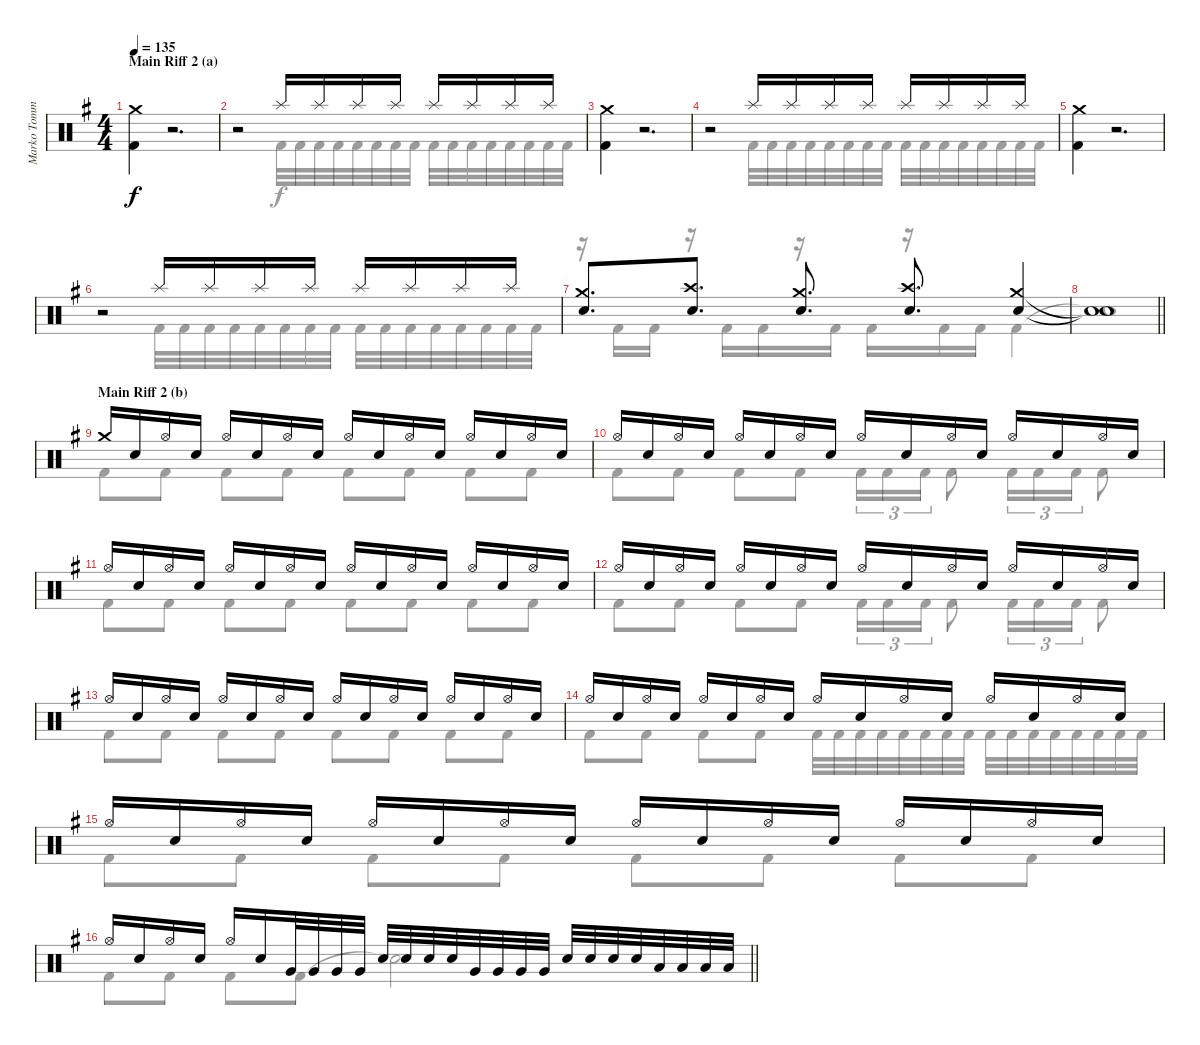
\track ("Marko Tommila (drums)" "Marko Tomm") {instrument percussion}
\staff {score}
\articulation defaults
\voice
\ts (4 4)
\section ("" "Main Riff 2 (a)")
\tempo 135
\clef neutral
\ks eminor
("Crash medium (hit)" "Kick (hit) 2").4{dy f} r.2{d} |
r.2 "Splash (hit)".16 "Splash (hit)".16 "Splash (hit)".16 "Splash (hit)".16 "Splash (hit)".16 "Splash (hit)".16 "Splash (hit)".16 "Splash (hit)".16 |
("Crash medium (hit)" "Kick (hit) 2").4 r.2{d} |
r.2 "Splash (hit)".16 "Splash (hit)".16 "Splash (hit)".16 "Splash (hit)".16 "Splash (hit)".16 "Splash (hit)".16 "Splash (hit)".16 "Splash (hit)".16 |
("Crash medium (hit)" "Kick (hit) 2").4 r.2{d} |
r.2 "Splash (hit)".16 "Splash (hit)".16 "Splash (hit)".16 "Splash (hit)".16 "Splash (hit)".16 "Splash (hit)".16 "Splash (hit)".16 "Splash (hit)".16 |
("Crash medium (hit)" "Electric Snare (hit)").8{d} ("Crash high (hit)" "Electric Snare (hit)").8{d} ("Crash medium (hit)" "Electric Snare (hit)").8{d} ("Crash high (hit)" "Electric Snare (hit)").8{d} ("Crash medium (hit)" "Electric Snare (hit)").4 |
\barLineRight lightlight
("Snare (hit)"{t} "Snare (hit)"{t}).1 |
\section ("" "Main Riff 2 (b)")
"Crash medium (hit)".16 "Electric Snare (hit)".16 "Hi-Hat (open)".16 "Electric Snare (hit)".16 "Hi-Hat (open)".16 "Electric Snare (hit)".16 "Hi-Hat (open)".16 "Electric Snare (hit)".16 "Hi-Hat (open)".16 "Electric Snare (hit)".16 "Hi-Hat (open)".16 "Electric Snare (hit)".16 "Hi-Hat (open)".16 "Electric Snare (hit)".16 "Hi-Hat (open)".16 "Electric Snare (hit)".16 |
"Hi-Hat (open)".16 "Electric Snare (hit)".16 "Hi-Hat (open)".16 "Electric Snare (hit)".16 "Hi-Hat (open)".16 "Electric Snare (hit)".16 "Hi-Hat (open)".16 "Electric Snare (hit)".16 "Hi-Hat (open)".16 "Electric Snare (hit)".16 "Hi-Hat (open)".16 "Electric Snare (hit)".16 "Hi-Hat (open)".16 "Electric Snare (hit)".16 "Hi-Hat (open)".16 "Electric Snare (hit)".16 |
"Hi-Hat (open)".16 "Electric Snare (hit)".16 "Hi-Hat (open)".16 "Electric Snare (hit)".16 "Hi-Hat (open)".16 "Electric Snare (hit)".16 "Hi-Hat (open)".16 "Electric Snare (hit)".16 "Hi-Hat (open)".16 "Electric Snare (hit)".16 "Hi-Hat (open)".16 "Electric Snare (hit)".16 "Hi-Hat (open)".16 "Electric Snare (hit)".16 "Hi-Hat (open)".16 "Electric Snare (hit)".16 |
"Hi-Hat (open)".16 "Electric Snare (hit)".16 "Hi-Hat (open)".16 "Electric Snare (hit)".16 "Hi-Hat (open)".16 "Electric Snare (hit)".16 "Hi-Hat (open)".16 "Electric Snare (hit)".16 "Hi-Hat (open)".16 "Electric Snare (hit)".16 "Hi-Hat (open)".16 "Electric Snare (hit)".16 "Hi-Hat (open)".16 "Electric Snare (hit)".16 "Hi-Hat (open)".16 "Electric Snare (hit)".16 |
"Hi-Hat (open)".16 "Electric Snare (hit)".16 "Hi-Hat (open)".16 "Electric Snare (hit)".16 "Hi-Hat (open)".16 "Electric Snare (hit)".16 "Hi-Hat (open)".16 "Electric Snare (hit)".16 "Hi-Hat (open)".16 "Electric Snare (hit)".16 "Hi-Hat (open)".16 "Electric Snare (hit)".16 "Hi-Hat (open)".16 "Electric Snare (hit)".16 "Hi-Hat (open)".16 "Electric Snare (hit)".16 |
"Hi-Hat (open)".16 "Electric Snare (hit)".16 "Hi-Hat (open)".16 "Electric Snare (hit)".16 "Hi-Hat (open)".16 "Electric Snare (hit)".16 "Hi-Hat (open)".16 "Electric Snare (hit)".16 "Hi-Hat (open)".16 "Electric Snare (hit)".16 "Hi-Hat (open)".16 "Electric Snare (hit)".16 "Hi-Hat (open)".16 "Electric Snare (hit)".16 "Hi-Hat (open)".16 "Electric Snare (hit)".16 |
"Hi-Hat (open)".16 "Electric Snare (hit)".16 "Hi-Hat (open)".16 "Electric Snare (hit)".16 "Hi-Hat (open)".16 "Electric Snare (hit)".16 "Hi-Hat (open)".16 "Electric Snare (hit)".16 "Hi-Hat (open)".16 "Electric Snare (hit)".16 "Hi-Hat (open)".16 "Electric Snare (hit)".16 "Hi-Hat (open)".16 "Electric Snare (hit)".16 "Hi-Hat (open)".16 "Electric Snare (hit)".16 |
\barLineRight lightlight "Hi-Hat (open)".16 "Electric Snare (hit)".16 "Hi-Hat (open)".16 "Electric Snare (hit)".16 "Hi-Hat (open)".16 "Electric Snare (hit)".16 "Very Low Tom (hit)".32 "Very Low Tom (hit)".32 "Very Low Tom (hit)".32 "Very Low Tom (hit)".32 "Electric Snare (hit)".32 "Electric Snare (hit)".32 "Electric Snare (hit)".32 "Electric Snare (hit)".32 "Very Low Tom (hit)".32 "Very Low Tom (hit)".32 "Very Low Tom (hit)".32 "Very Low Tom (hit)".32 "Electric Snare (hit)".32 "Electric Snare (hit)".32 "Electric Snare (hit)".32 "Electric Snare (hit)".32 "Low Tom (hit)".32 "Low Tom (hit)".32 "Low Tom (hit)".32 "Low Tom (hit)".32
\voice
\clef neutral
\ottava regular
\simile none
\ks eminor
|
r.2 "Kick (hit) 2".32 "Kick (hit) 2".32 "Kick (hit) 2".32 "Kick (hit) 2".32 "Kick (hit) 2".32 "Kick (hit) 2".32 "Kick (hit) 2".32 "Kick (hit) 2".32 "Kick (hit) 2".32 "Kick (hit) 2".32 "Kick (hit) 2".32 "Kick (hit) 2".32 "Kick (hit) 2".32 "Kick (hit) 2".32 "Kick (hit) 2".32 "Kick (hit) 2".32 |
|
r.2 "Kick (hit) 2".32 "Kick (hit) 2".32 "Kick (hit) 2".32 "Kick (hit) 2".32 "Kick (hit) 2".32 "Kick (hit) 2".32 "Kick (hit) 2".32 "Kick (hit) 2".32 "Kick (hit) 2".32 "Kick (hit) 2".32 "Kick (hit) 2".32 "Kick (hit) 2".32 "Kick (hit) 2".32 "Kick (hit) 2".32 "Kick (hit) 2".32 "Kick (hit) 2".32 |
|
r.2 "Kick (hit) 2".32 "Kick (hit) 2".32 "Kick (hit) 2".32 "Kick (hit) 2".32 "Kick (hit) 2".32 "Kick (hit) 2".32 "Kick (hit) 2".32 "Kick (hit) 2".32 "Kick (hit) 2".32 "Kick (hit) 2".32 "Kick (hit) 2".32 "Kick (hit) 2".32 "Kick (hit) 2".32 "Kick (hit) 2".32 "Kick (hit) 2".32 "Kick (hit) 2".32 |
r.16 "Kick (hit) 2".16 "Kick (hit) 2".16 r.16 "Kick (hit) 2".16 "Kick (hit) 2".16 r.16 "Kick (hit) 2".16 "Kick (hit) 2".16 r.16 "Kick (hit) 2".16 "Kick (hit) 2".16 "Kick (hit) 2".4 |
\barLineRight lightlight "Snare (hit)"{t}.1
|
"Kick (hit) 2".8 "Kick (hit) 2".8 "Kick (hit) 2".8 "Kick (hit) 2".8 "Kick (hit) 2".8 "Kick (hit) 2".8 "Kick (hit) 2".8 "Kick (hit) 2".8 |
"Kick (hit) 2".8 "Kick (hit) 2".8 "Kick (hit) 2".8 "Kick (hit) 2".8 "Kick (hit) 2".16{tu (3 2)} "Kick (hit) 2".16{tu (3 2)} "Kick (hit) 2".16{tu (3 2)} "Kick (hit) 2".8 "Kick (hit) 2".16{tu (3 2)} "Kick (hit) 2".16{tu (3 2)} "Kick (hit) 2".16{tu (3 2)} "Kick (hit) 2".8 |
"Kick (hit) 2".8 "Kick (hit) 2".8 "Kick (hit) 2".8 "Kick (hit) 2".8 "Kick (hit) 2".8 "Kick (hit) 2".8 "Kick (hit) 2".8 "Kick (hit) 2".8 |
"Kick (hit) 2".8 "Kick (hit) 2".8 "Kick (hit) 2".8 "Kick (hit) 2".8 "Kick (hit) 2".16{tu (3 2)} "Kick (hit) 2".16{tu (3 2)} "Kick (hit) 2".16{tu (3 2)} "Kick (hit) 2".8 "Kick (hit) 2".16{tu (3 2)} "Kick (hit) 2".16{tu (3 2)} "Kick (hit) 2".16{tu (3 2)} "Kick (hit) 2".8 |
"Kick (hit) 2".8 "Kick (hit) 2".8 "Kick (hit) 2".8 "Kick (hit) 2".8 "Kick (hit) 2".8 "Kick (hit) 2".8 "Kick (hit) 2".8 "Kick (hit) 2".8 |
"Kick (hit) 2".8 "Kick (hit) 2".8 "Kick (hit) 2".8 "Kick (hit) 2".8 "Kick (hit) 2".32 "Kick (hit) 2".32 "Kick (hit) 2".32 "Kick (hit) 2".32 "Kick (hit) 2".32 "Kick (hit) 2".32 "Kick (hit) 2".32 "Kick (hit) 2".32 "Kick (hit) 2".32 "Kick (hit) 2".32 "Kick (hit) 2".32 "Kick (hit) 2".32 "Kick (hit) 2".32 "Kick (hit) 2".32 "Kick (hit) 2".32 "Kick (hit) 2".32 |
"Kick (hit) 2".8 "Kick (hit) 2".8 "Kick (hit) 2".8 "Kick (hit) 2".8 "Kick (hit) 2".8 "Kick (hit) 2".8 "Kick (hit) 2".8 "Kick (hit) 2".8 |
\barLineRight lightlight "Kick (hit) 2".8 "Kick (hit) 2".8 "Kick (hit) 2".8 "Kick (hit) 2".8 "Snare (hit)"{t}.2
